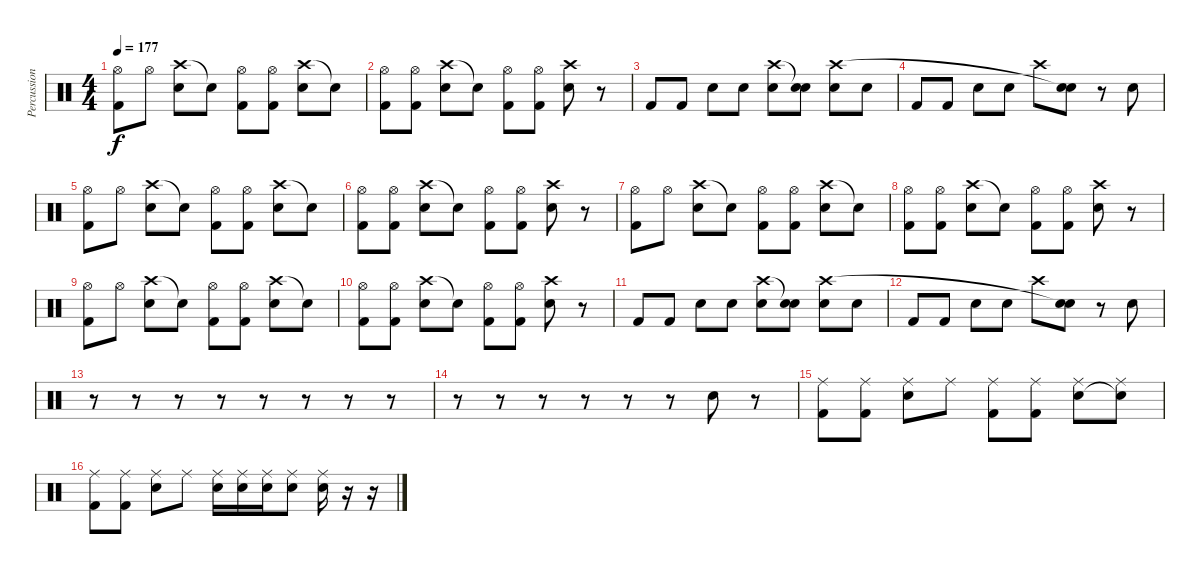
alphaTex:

\track ("Percussion" "Percussion") {instrument percussion}
\staff {score}
\articulation defaults
\ts (4 4)
\tempo 177
\clef neutral
\ks c
("Hi-Hat (open)" "Kick (hit) 2").8{dy f} "Hi-Hat (open)".8 ("Crash high (hit)" "Electric Snare (hit)").8 "Snare (hit)"{t}.8 ("Hi-Hat (open)" "Kick (hit) 2").8 ("Hi-Hat (open)" "Kick (hit) 2").8 ("Crash high (hit)" "Electric Snare (hit)").8 "Snare (hit)"{t}.8 |
("Hi-Hat (open)" "Kick (hit) 2").8 ("Hi-Hat (open)" "Kick (hit) 2").8 ("Crash high (hit)" "Electric Snare (hit)").8 "Snare (hit)"{t}.8 ("Hi-Hat (open)" "Kick (hit) 2").8 ("Hi-Hat (open)" "Kick (hit) 2").8 ("Crash high (hit)" "Electric Snare (hit)").8 r.8 |
"Kick (hit) 2".8 "Kick (hit) 2".8 "Electric Snare (hit)".8 "Electric Snare (hit)".8 ("Electric Snare (hit)" "Crash high (hit)").8 ("Electric Snare (hit)" "Snare (hit)"{t}).8 ("Electric Snare (hit)" "Crash high (hit)").8 "Electric Snare (hit)".8 |
"Kick (hit) 2".8 "Kick (hit) 2".8 "Electric Snare (hit)".8 "Electric Snare (hit)".8 "Crash high (hit)".8 ("Electric Snare (hit)" "Snare (hit)"{t}).8 r.8 "Electric Snare (hit)".8 |
("Hi-Hat (open)" "Kick (hit) 2").8 "Hi-Hat (open)".8 ("Crash high (hit)" "Electric Snare (hit)").8 "Snare (hit)"{t}.8 ("Hi-Hat (open)" "Kick (hit) 2").8 ("Hi-Hat (open)" "Kick (hit) 2").8 ("Crash high (hit)" "Electric Snare (hit)").8 "Snare (hit)"{t}.8 |
("Hi-Hat (open)" "Kick (hit) 2").8 ("Hi-Hat (open)" "Kick (hit) 2").8 ("Crash high (hit)" "Electric Snare (hit)").8 "Snare (hit)"{t}.8 ("Hi-Hat (open)" "Kick (hit) 2").8 ("Hi-Hat (open)" "Kick (hit) 2").8 ("Crash high (hit)" "Electric Snare (hit)").8 r.8 |
("Hi-Hat (open)" "Kick (hit) 2").8 "Hi-Hat (open)".8 ("Crash high (hit)" "Electric Snare (hit)").8 "Snare (hit)"{t}.8 ("Hi-Hat (open)" "Kick (hit) 2").8 ("Hi-Hat (open)" "Kick (hit) 2").8 ("Crash high (hit)" "Electric Snare (hit)").8 "Snare (hit)"{t}.8 |
("Hi-Hat (open)" "Kick (hit) 2").8 ("Hi-Hat (open)" "Kick (hit) 2").8 ("Crash high (hit)" "Electric Snare (hit)").8 "Snare (hit)"{t}.8 ("Hi-Hat (open)" "Kick (hit) 2").8 ("Hi-Hat (open)" "Kick (hit) 2").8 ("Crash high (hit)" "Electric Snare (hit)").8 r.8 |
("Hi-Hat (open)" "Kick (hit) 2").8 "Hi-Hat (open)".8 ("Crash high (hit)" "Electric Snare (hit)").8 "Snare (hit)"{t}.8 ("Hi-Hat (open)" "Kick (hit) 2").8 ("Hi-Hat (open)" "Kick (hit) 2").8 ("Crash high (hit)" "Electric Snare (hit)").8 "Snare (hit)"{t}.8 |
("Hi-Hat (open)" "Kick (hit) 2").8 ("Hi-Hat (open)" "Kick (hit) 2").8 ("Crash high (hit)" "Electric Snare (hit)").8 "Snare (hit)"{t}.8 ("Hi-Hat (open)" "Kick (hit) 2").8 ("Hi-Hat (open)" "Kick (hit) 2").8 ("Crash high (hit)" "Electric Snare (hit)").8 r.8 |
"Kick (hit) 2".8 "Kick (hit) 2".8 "Electric Snare (hit)".8 "Electric Snare (hit)".8 ("Electric Snare (hit)" "Crash high (hit)").8 ("Electric Snare (hit)" "Snare (hit)"{t}).8 ("Electric Snare (hit)" "Crash high (hit)").8 "Electric Snare (hit)".8 |
"Kick (hit) 2".8 "Kick (hit) 2".8 "Electric Snare (hit)".8 "Electric Snare (hit)".8 "Crash high (hit)".8 ("Electric Snare (hit)" "Snare (hit)"{t}).8 r.8 "Electric Snare (hit)".8 |
r.8 r.8 r.8 r.8 r.8 r.8 r.8 r.8 |
r.8 r.8 r.8 r.8 r.8 r.8 "Electric Snare (hit)".8 r.8 |
("Ride (middle)" "Kick (hit) 2").8 ("Ride (middle)" "Kick (hit) 2").8 ("Ride (middle)" "Electric Snare (hit)").8 "Ride (middle)".8 ("Ride (middle)" "Kick (hit) 2").8 ("Ride (middle)" "Kick (hit) 2").8 ("Ride (middle)" "Electric Snare (hit)").8 ("Ride (middle)" "Snare (hit)"{t}).8 |
("Ride (middle)" "Kick (hit) 2").8 ("Ride (middle)" "Kick (hit) 2").8 ("Ride (middle)" "Electric Snare (hit)").8 "Ride (middle)".8 ("Ride (middle)" "Electric Snare (hit)").16 ("Ride (middle)" "Electric Snare (hit)").16 ("Ride (middle)" "Electric Snare (hit)").16 ("Ride (middle)" "Electric Snare (hit)").8 ("Ride (middle)" "Electric Snare (hit)").16 r.16 r.16
